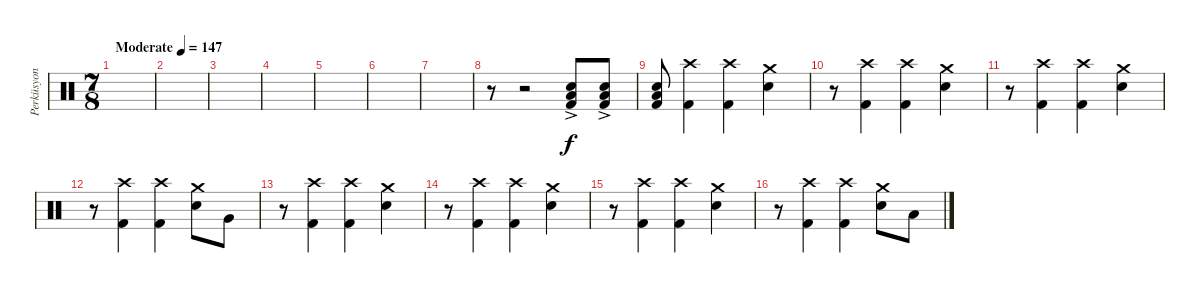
\track ("Perküsyon" "Perküsyon") {instrument percussion}
\staff {score}
\articulation defaults
\ts (7 8)
\tempo (147 "Moderate")
\clef neutral
\ks c
|
|
|
|
|
|
|
r.8 r.2 ("Kick (hit) 2" "Low Floor Tom (hit)"{ac} "Electric Snare (hit)").8 ("Kick (hit) 2" "Low Floor Tom (hit)"{ac} "Electric Snare (hit)").8 |
("Kick (hit) 2" "Low Floor Tom (hit)" "Electric Snare (hit)").8{dy f} ("Crash high (hit)" "Kick (hit) 2").4 ("Crash high (hit)" "Kick (hit) 2").4 ("Crash medium (hit)" "Electric Snare (hit)").4 |
r.8 ("Crash high (hit)" "Kick (hit) 2").4 ("Crash high (hit)" "Kick (hit) 2").4 ("Crash medium (hit)" "Electric Snare (hit)").4 |
r.8 ("Crash high (hit)" "Kick (hit) 2").4 ("Crash high (hit)" "Kick (hit) 2").4 ("Crash medium (hit)" "Electric Snare (hit)").4 |
r.8 ("Crash high (hit)" "Kick (hit) 2").4 ("Crash high (hit)" "Kick (hit) 2").4 ("Crash medium (hit)" "Electric Snare (hit)").8 "Very Low Tom (hit)".8 |
r.8 ("Crash high (hit)" "Kick (hit) 2").4 ("Crash high (hit)" "Kick (hit) 2").4 ("Crash medium (hit)" "Electric Snare (hit)").4 |
r.8 ("Crash high (hit)" "Kick (hit) 2").4 ("Crash high (hit)" "Kick (hit) 2").4 ("Crash medium (hit)" "Electric Snare (hit)").4 |
r.8 ("Crash high (hit)" "Kick (hit) 2").4 ("Crash high (hit)" "Kick (hit) 2").4 ("Crash medium (hit)" "Electric Snare (hit)").4 |
r.8 ("Crash high (hit)" "Kick (hit) 2").4 ("Crash high (hit)" "Kick (hit) 2").4 ("Crash medium (hit)" "Electric Snare (hit)").8 "Low Floor Tom (hit)".8
